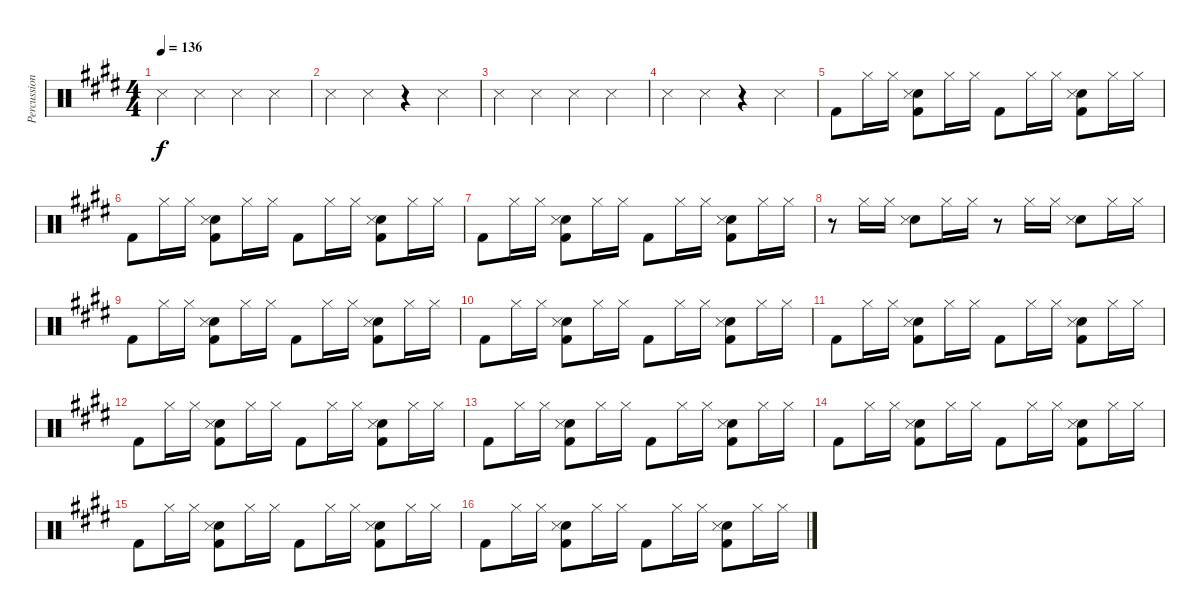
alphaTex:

\track ("Percussion" "Percussion") {instrument percussion}
\staff {score}
\articulation defaults
\ts (4 4)
\tempo 136
\clef neutral
\ks e "Snare (side stick) 3".4{dy f} "Snare (side stick) 3".4 "Snare (side stick) 3".4 "Snare (side stick) 3".4
|
"Snare (side stick) 3".4 "Snare (side stick) 3".4 r.4 "Snare (side stick) 3".4 |
"Snare (side stick) 3".4 "Snare (side stick) 3".4 "Snare (side stick) 3".4 "Snare (side stick) 3".4 |
"Snare (side stick) 3".4 "Snare (side stick) 3".4 r.4 "Snare (side stick) 3".4 |
"Kick (hit) 2".8 "Hi-Hat (closed)".16 "Hi-Hat (closed)".16 ("Hand Clap (hit)" "Snare (side stick) 3" "Kick (hit) 2").8 "Hi-Hat (closed)".16 "Hi-Hat (closed)".16 "Kick (hit) 2".8 "Hi-Hat (closed)".16 "Hi-Hat (closed)".16 ("Hand Clap (hit)" "Snare (side stick) 3" "Kick (hit) 2").8 "Hi-Hat (closed)".16 "Hi-Hat (closed)".16 |
"Kick (hit) 2".8 "Hi-Hat (closed)".16 "Hi-Hat (closed)".16 ("Hand Clap (hit)" "Snare (side stick) 3" "Kick (hit) 2").8 "Hi-Hat (closed)".16 "Hi-Hat (closed)".16 "Kick (hit) 2".8 "Hi-Hat (closed)".16 "Hi-Hat (closed)".16 ("Hand Clap (hit)" "Snare (side stick) 3" "Kick (hit) 2").8 "Hi-Hat (closed)".16 "Hi-Hat (closed)".16 |
"Kick (hit) 2".8 "Hi-Hat (closed)".16 "Hi-Hat (closed)".16 ("Hand Clap (hit)" "Snare (side stick) 3" "Kick (hit) 2").8 "Hi-Hat (closed)".16 "Hi-Hat (closed)".16 "Kick (hit) 2".8 "Hi-Hat (closed)".16 "Hi-Hat (closed)".16 ("Hand Clap (hit)" "Snare (side stick) 3" "Kick (hit) 2").8 "Hi-Hat (closed)".16 "Hi-Hat (closed)".16 |
r.8 "Hi-Hat (closed)".16 "Hi-Hat (closed)".16 ("Hand Clap (hit)" "Snare (side stick) 3").8 "Hi-Hat (closed)".16 "Hi-Hat (closed)".16 r.8 "Hi-Hat (closed)".16 "Hi-Hat (closed)".16 ("Hand Clap (hit)" "Snare (side stick) 3").8 "Hi-Hat (closed)".16 "Hi-Hat (closed)".16 |
"Kick (hit) 2".8 "Hi-Hat (closed)".16 "Hi-Hat (closed)".16 ("Hand Clap (hit)" "Snare (side stick) 3" "Kick (hit) 2").8 "Hi-Hat (closed)".16 "Hi-Hat (closed)".16 "Kick (hit) 2".8 "Hi-Hat (closed)".16 "Hi-Hat (closed)".16 ("Hand Clap (hit)" "Snare (side stick) 3" "Kick (hit) 2").8 "Hi-Hat (closed)".16 "Hi-Hat (closed)".16 |
"Kick (hit) 2".8 "Hi-Hat (closed)".16 "Hi-Hat (closed)".16 ("Hand Clap (hit)" "Snare (side stick) 3" "Kick (hit) 2").8 "Hi-Hat (closed)".16 "Hi-Hat (closed)".16 "Kick (hit) 2".8 "Hi-Hat (closed)".16 "Hi-Hat (closed)".16 ("Hand Clap (hit)" "Snare (side stick) 3" "Kick (hit) 2").8 "Hi-Hat (closed)".16 "Hi-Hat (closed)".16 |
"Kick (hit) 2".8 "Hi-Hat (closed)".16 "Hi-Hat (closed)".16 ("Hand Clap (hit)" "Snare (side stick) 3" "Kick (hit) 2").8 "Hi-Hat (closed)".16 "Hi-Hat (closed)".16 "Kick (hit) 2".8 "Hi-Hat (closed)".16 "Hi-Hat (closed)".16 ("Hand Clap (hit)" "Snare (side stick) 3" "Kick (hit) 2").8 "Hi-Hat (closed)".16 "Hi-Hat (closed)".16 |
"Kick (hit) 2".8 "Hi-Hat (closed)".16 "Hi-Hat (closed)".16 ("Hand Clap (hit)" "Snare (side stick) 3" "Kick (hit) 2").8 "Hi-Hat (closed)".16 "Hi-Hat (closed)".16 "Kick (hit) 2".8 "Hi-Hat (closed)".16 "Hi-Hat (closed)".16 ("Hand Clap (hit)" "Snare (side stick) 3" "Kick (hit) 2").8 "Hi-Hat (closed)".16 "Hi-Hat (closed)".16 |
"Kick (hit) 2".8 "Hi-Hat (closed)".16 "Hi-Hat (closed)".16 ("Hand Clap (hit)" "Snare (side stick) 3" "Kick (hit) 2").8 "Hi-Hat (closed)".16 "Hi-Hat (closed)".16 "Kick (hit) 2".8 "Hi-Hat (closed)".16 "Hi-Hat (closed)".16 ("Hand Clap (hit)" "Snare (side stick) 3" "Kick (hit) 2").8 "Hi-Hat (closed)".16 "Hi-Hat (closed)".16 |
"Kick (hit) 2".8 "Hi-Hat (closed)".16 "Hi-Hat (closed)".16 ("Hand Clap (hit)" "Snare (side stick) 3" "Kick (hit) 2").8 "Hi-Hat (closed)".16 "Hi-Hat (closed)".16 "Kick (hit) 2".8 "Hi-Hat (closed)".16 "Hi-Hat (closed)".16 ("Hand Clap (hit)" "Snare (side stick) 3" "Kick (hit) 2").8 "Hi-Hat (closed)".16 "Hi-Hat (closed)".16 |
"Kick (hit) 2".8 "Hi-Hat (closed)".16 "Hi-Hat (closed)".16 ("Hand Clap (hit)" "Snare (side stick) 3" "Kick (hit) 2").8 "Hi-Hat (closed)".16 "Hi-Hat (closed)".16 "Kick (hit) 2".8 "Hi-Hat (closed)".16 "Hi-Hat (closed)".16 ("Hand Clap (hit)" "Snare (side stick) 3" "Kick (hit) 2").8 "Hi-Hat (closed)".16 "Hi-Hat (closed)".16 |
"Kick (hit) 2".8 "Hi-Hat (closed)".16 "Hi-Hat (closed)".16 ("Hand Clap (hit)" "Snare (side stick) 3" "Kick (hit) 2").8 "Hi-Hat (closed)".16 "Hi-Hat (closed)".16 "Kick (hit) 2".8 "Hi-Hat (closed)".16 "Hi-Hat (closed)".16 ("Hand Clap (hit)" "Snare (side stick) 3" "Kick (hit) 2").8 "Hi-Hat (closed)".16 "Hi-Hat (closed)".16
